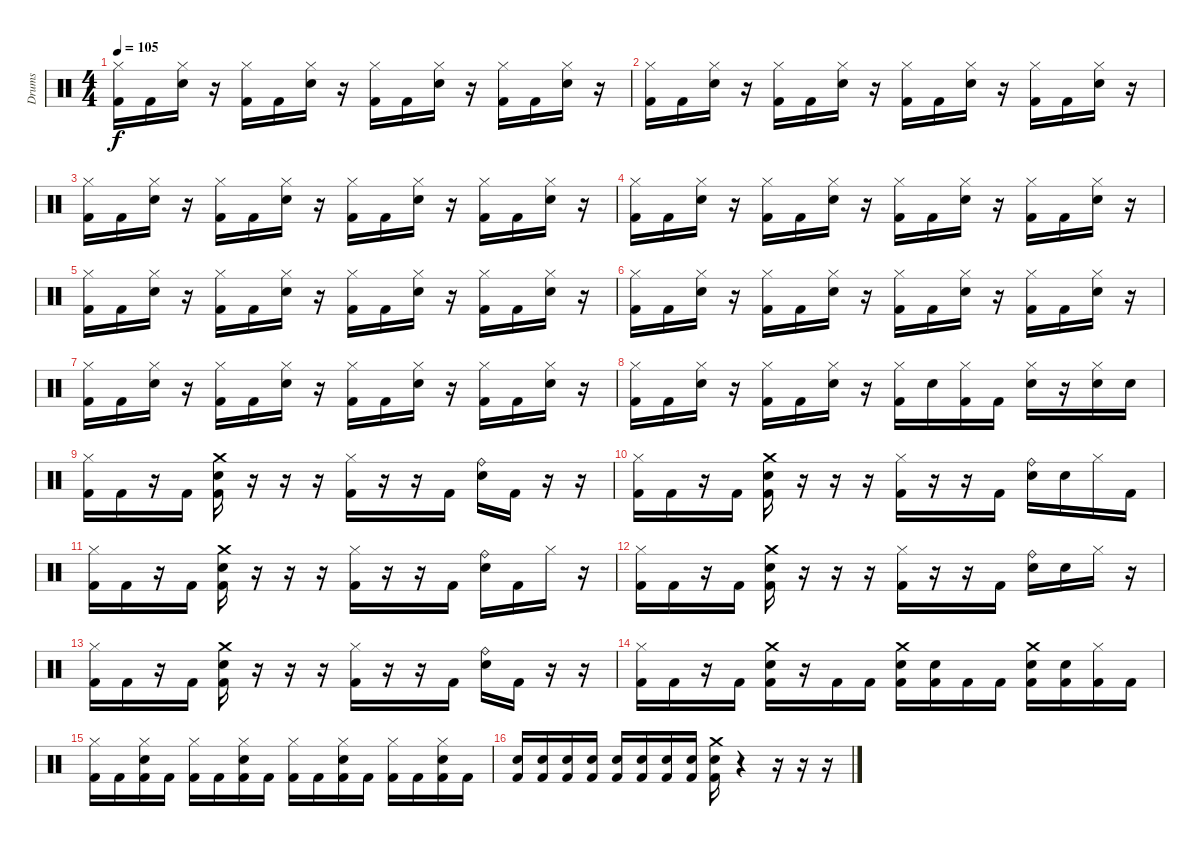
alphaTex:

\track ("Drums" "Drums") {instrument percussion}
\staff {score}
\articulation defaults
\ts (4 4)
\tempo 105
\clef neutral
\ks c
("Kick (hit) 2" "Hi-Hat (closed)").16{dy f} "Kick (hit) 2".16 ("Snare (hit) 2" "Hi-Hat (closed)").16 r.16 ("Kick (hit) 2" "Hi-Hat (closed)").16 "Kick (hit) 2".16 ("Snare (hit) 2" "Hi-Hat (closed)").16 r.16 ("Kick (hit) 2" "Hi-Hat (closed)").16 "Kick (hit) 2".16 ("Snare (hit) 2" "Hi-Hat (closed)").16 r.16 ("Kick (hit) 2" "Hi-Hat (closed)").16 "Kick (hit) 2".16 ("Snare (hit) 2" "Hi-Hat (closed)").16 r.16 |
("Kick (hit) 2" "Hi-Hat (closed)").16 "Kick (hit) 2".16 ("Snare (hit) 2" "Hi-Hat (closed)").16 r.16 ("Kick (hit) 2" "Hi-Hat (closed)").16 "Kick (hit) 2".16 ("Snare (hit) 2" "Hi-Hat (closed)").16 r.16 ("Kick (hit) 2" "Hi-Hat (closed)").16 "Kick (hit) 2".16 ("Snare (hit) 2" "Hi-Hat (closed)").16 r.16 ("Kick (hit) 2" "Hi-Hat (closed)").16 "Kick (hit) 2".16 ("Snare (hit) 2" "Hi-Hat (closed)").16 r.16 |
("Kick (hit) 2" "Hi-Hat (closed)").16 "Kick (hit) 2".16 ("Snare (hit) 2" "Hi-Hat (closed)").16 r.16 ("Kick (hit) 2" "Hi-Hat (closed)").16 "Kick (hit) 2".16 ("Snare (hit) 2" "Hi-Hat (closed)").16 r.16 ("Kick (hit) 2" "Hi-Hat (closed)").16 "Kick (hit) 2".16 ("Snare (hit) 2" "Hi-Hat (closed)").16 r.16 ("Kick (hit) 2" "Hi-Hat (closed)").16 "Kick (hit) 2".16 ("Snare (hit) 2" "Hi-Hat (closed)").16 r.16 |
("Kick (hit) 2" "Hi-Hat (closed)").16 "Kick (hit) 2".16 ("Snare (hit) 2" "Hi-Hat (closed)").16 r.16 ("Kick (hit) 2" "Hi-Hat (closed)").16 "Kick (hit) 2".16 ("Snare (hit) 2" "Hi-Hat (closed)").16 r.16 ("Kick (hit) 2" "Hi-Hat (closed)").16 "Kick (hit) 2".16 ("Snare (hit) 2" "Hi-Hat (closed)").16 r.16 ("Kick (hit) 2" "Hi-Hat (closed)").16 "Kick (hit) 2".16 ("Snare (hit) 2" "Hi-Hat (closed)").16 r.16 |
("Kick (hit) 2" "Hi-Hat (closed)").16 "Kick (hit) 2".16 ("Snare (hit) 2" "Hi-Hat (closed)").16 r.16 ("Kick (hit) 2" "Hi-Hat (closed)").16 "Kick (hit) 2".16 ("Snare (hit) 2" "Hi-Hat (closed)").16 r.16 ("Kick (hit) 2" "Hi-Hat (closed)").16 "Kick (hit) 2".16 ("Snare (hit) 2" "Hi-Hat (closed)").16 r.16 ("Kick (hit) 2" "Hi-Hat (closed)").16 "Kick (hit) 2".16 ("Snare (hit) 2" "Hi-Hat (closed)").16 r.16 |
("Kick (hit) 2" "Hi-Hat (closed)").16 "Kick (hit) 2".16 ("Snare (hit) 2" "Hi-Hat (closed)").16 r.16 ("Kick (hit) 2" "Hi-Hat (closed)").16 "Kick (hit) 2".16 ("Snare (hit) 2" "Hi-Hat (closed)").16 r.16 ("Kick (hit) 2" "Hi-Hat (closed)").16 "Kick (hit) 2".16 ("Snare (hit) 2" "Hi-Hat (closed)").16 r.16 ("Kick (hit) 2" "Hi-Hat (closed)").16 "Kick (hit) 2".16 ("Snare (hit) 2" "Hi-Hat (closed)").16 r.16 |
("Kick (hit) 2" "Hi-Hat (closed)").16 "Kick (hit) 2".16 ("Snare (hit) 2" "Hi-Hat (closed)").16 r.16 ("Kick (hit) 2" "Hi-Hat (closed)").16 "Kick (hit) 2".16 ("Snare (hit) 2" "Hi-Hat (closed)").16 r.16 ("Kick (hit) 2" "Hi-Hat (closed)").16 "Kick (hit) 2".16 ("Snare (hit) 2" "Hi-Hat (closed)").16 r.16 ("Kick (hit) 2" "Hi-Hat (closed)").16 "Kick (hit) 2".16 ("Snare (hit) 2" "Hi-Hat (closed)").16 r.16 |
("Kick (hit) 2" "Hi-Hat (closed)").16 "Kick (hit) 2".16 ("Snare (hit) 2" "Hi-Hat (closed)").16 r.16 ("Kick (hit) 2" "Hi-Hat (closed)").16 "Kick (hit) 2".16 ("Snare (hit) 2" "Hi-Hat (closed)").16 r.16 ("Kick (hit) 2" "Hi-Hat (closed)").16 "Snare (hit) 2".16 ("Kick (hit) 2" "Hi-Hat (closed)").16 "Kick (hit) 2".16 ("Snare (hit) 2" "Hi-Hat (closed)").16 r.16 ("Snare (hit) 2" "Hi-Hat (closed)").16 "Snare (hit) 2".16 |
("Kick (hit) 2" "Hi-Hat (closed)").16 "Kick (hit) 2".16 r.16 "Kick (hit) 2".16 ("Kick (hit) 2" "Snare (hit) 2" "Crash medium (hit)").16 r.16 r.16 r.16 ("Kick (hit) 2" "Hi-Hat (closed)").16 r.16 r.16 "Kick (hit) 2".16 ("Snare (hit) 2" "Ride (bell)").16 "Kick (hit) 2".16 r.16 r.16 |
("Kick (hit) 2" "Hi-Hat (closed)").16 "Kick (hit) 2".16 r.16 "Kick (hit) 2".16 ("Kick (hit) 2" "Snare (hit) 2" "Crash medium (hit)").16 r.16 r.16 r.16 ("Kick (hit) 2" "Hi-Hat (closed)").16 r.16 r.16 "Kick (hit) 2".16 ("Snare (hit) 2" "Ride (bell)").16 "Snare (hit) 2".16 "Hi-Hat (closed)".16 "Kick (hit) 2".16 |
("Kick (hit) 2" "Hi-Hat (closed)").16 "Kick (hit) 2".16 r.16 "Kick (hit) 2".16 ("Kick (hit) 2" "Snare (hit) 2" "Crash medium (hit)").16 r.16 r.16 r.16 ("Kick (hit) 2" "Hi-Hat (closed)").16 r.16 r.16 "Kick (hit) 2".16 ("Snare (hit) 2" "Ride (bell)").16 "Kick (hit) 2".16 "Hi-Hat (closed)".16 r.16 |
("Kick (hit) 2" "Hi-Hat (closed)").16 "Kick (hit) 2".16 r.16 "Kick (hit) 2".16 ("Kick (hit) 2" "Snare (hit) 2" "Crash medium (hit)").16 r.16 r.16 r.16 ("Kick (hit) 2" "Hi-Hat (closed)").16 r.16 r.16 "Kick (hit) 2".16 ("Snare (hit) 2" "Ride (bell)").16 "Snare (hit) 2".16 "Hi-Hat (closed)".16 r.16 |
("Kick (hit) 2" "Hi-Hat (closed)").16 "Kick (hit) 2".16 r.16 "Kick (hit) 2".16 ("Kick (hit) 2" "Snare (hit) 2" "Crash medium (hit)").16 r.16 r.16 r.16 ("Kick (hit) 2" "Hi-Hat (closed)").16 r.16 r.16 "Kick (hit) 2".16 ("Snare (hit) 2" "Ride (bell)").16 "Kick (hit) 2".16 r.16 r.16 |
("Kick (hit) 2" "Hi-Hat (closed)").16 "Kick (hit) 2".16 r.16 "Kick (hit) 2".16 ("Kick (hit) 2" "Snare (hit) 2" "Crash medium (hit)").16 r.16 "Kick (hit) 2".16 "Kick (hit) 2".16 ("Kick (hit) 2" "Snare (hit) 2" "Crash medium (hit)").16 ("Kick (hit) 2" "Snare (hit) 2").16 "Kick (hit) 2".16 "Kick (hit) 2".16 ("Kick (hit) 2" "Snare (hit) 2" "Crash medium (hit)").16 ("Kick (hit) 2" "Snare (hit) 2").16 ("Kick (hit) 2" "Hi-Hat (closed)").16 "Kick (hit) 2".16 |
("Kick (hit) 2" "Hi-Hat (closed)").16 "Kick (hit) 2".16 ("Kick (hit) 2" "Snare (hit) 2" "Hi-Hat (closed)").16 "Kick (hit) 2".16 ("Kick (hit) 2" "Hi-Hat (closed)").16 "Kick (hit) 2".16 ("Kick (hit) 2" "Snare (hit) 2" "Hi-Hat (closed)").16 "Kick (hit) 2".16 ("Kick (hit) 2" "Hi-Hat (closed)").16 "Kick (hit) 2".16 ("Kick (hit) 2" "Snare (hit) 2" "Hi-Hat (closed)").16 "Kick (hit) 2".16 ("Kick (hit) 2" "Hi-Hat (closed)").16 "Kick (hit) 2".16 ("Kick (hit) 2" "Snare (hit) 2" "Hi-Hat (closed)").16 "Kick (hit) 2".16{volume 4} |
("Kick (hit) 2" "Snare (hit) 2").16{volume 15} ("Kick (hit) 2" "Snare (hit) 2").16 ("Kick (hit) 2" "Snare (hit) 2").16 ("Kick (hit) 2" "Snare (hit) 2").16 ("Kick (hit) 2" "Snare (hit) 2").16 ("Kick (hit) 2" "Snare (hit) 2").16 ("Kick (hit) 2" "Snare (hit) 2").16 ("Kick (hit) 2" "Snare (hit) 2").16 ("Kick (hit) 2" "Snare (hit) 2" "Crash medium (hit)").16 r.4 r.16 r.16 r.16
